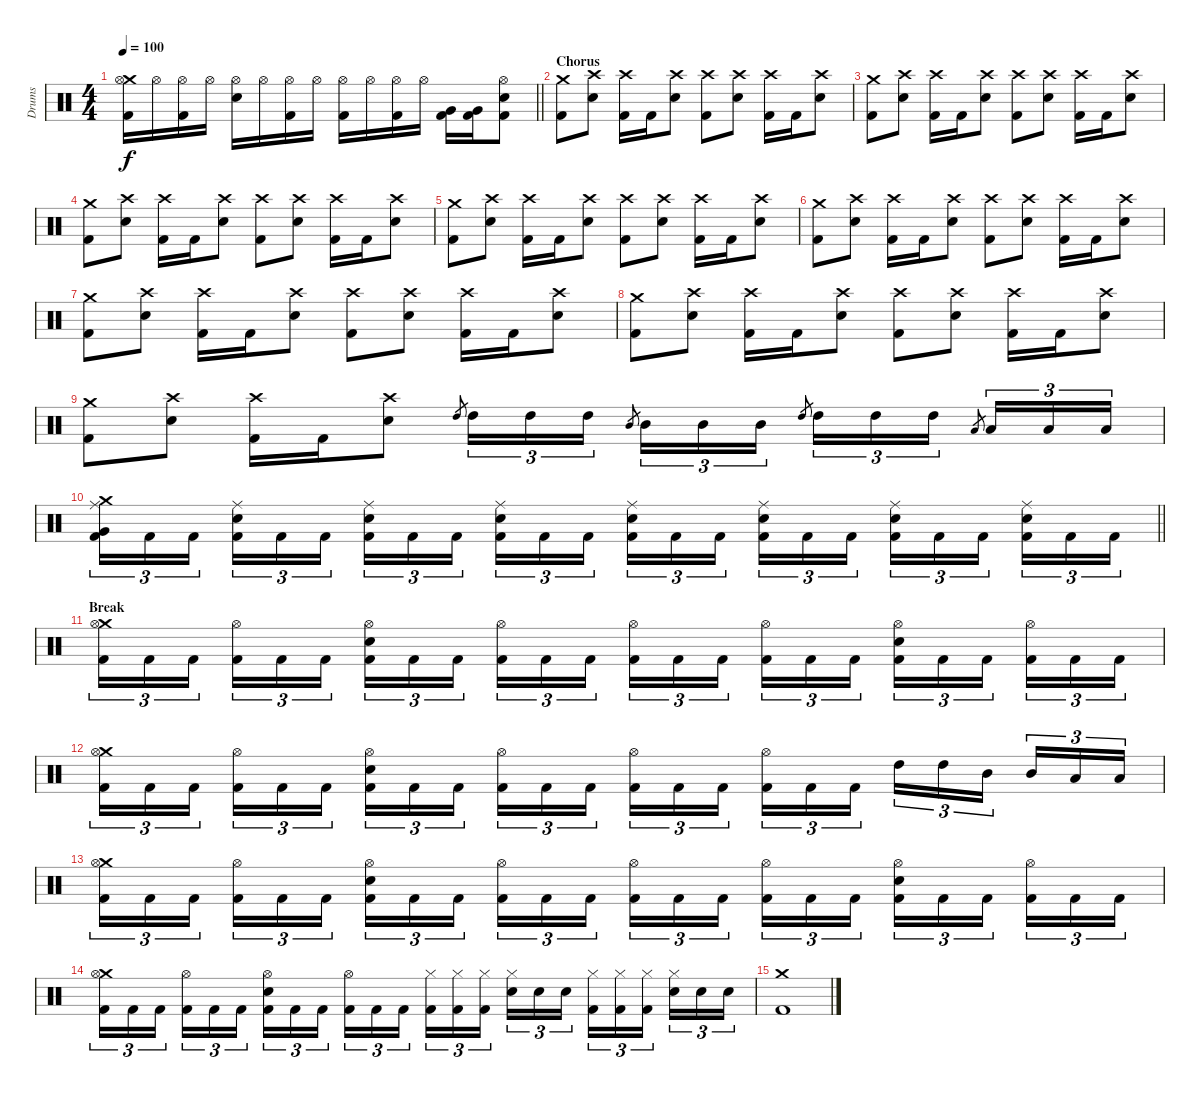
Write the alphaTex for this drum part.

\track ("Drums" "Drums") {instrument percussion}
\staff {score}
\articulation defaults
\ts (4 4)
\tempo 100
\clef neutral
\barLineRight lightlight
\ks c
("Crash medium (hit)" "Hi-Hat (open)" "Kick (hit) 2").16{dy f} "Hi-Hat (open)".16 ("Hi-Hat (open)" "Kick (hit) 2").16 "Hi-Hat (open)".16 ("Hi-Hat (open)" "Electric Snare (hit)").16 "Hi-Hat (open)".16 ("Hi-Hat (open)" "Kick (hit) 2").16 "Hi-Hat (open)".16 ("Hi-Hat (open)" "Kick (hit) 2").16 "Hi-Hat (open)".16 ("Hi-Hat (open)" "Kick (hit) 2").16 "Hi-Hat (open)".16 ("Very Low Tom (hit)" "Kick (hit) 2").16 ("Very Low Tom (hit)" "Kick (hit) 2").16 ("Hi-Hat (open)" "Electric Snare (hit)" "Kick (hit) 2").8 |
\section ("" "Chorus")
("Crash medium (hit)" "Kick (hit) 2").8 ("Crash high (hit)" "Electric Snare (hit)").8 ("Crash high (hit)" "Kick (hit) 2").16 "Kick (hit) 2".16 ("Crash high (hit)" "Electric Snare (hit)").8 ("Crash high (hit)" "Kick (hit) 2").8 ("Crash high (hit)" "Electric Snare (hit)").8 ("Crash high (hit)" "Kick (hit) 2").16 "Kick (hit) 2".16 ("Crash high (hit)" "Electric Snare (hit)").8 |
("Crash medium (hit)" "Kick (hit) 2").8 ("Crash high (hit)" "Electric Snare (hit)").8 ("Crash high (hit)" "Kick (hit) 2").16 "Kick (hit) 2".16 ("Crash high (hit)" "Electric Snare (hit)").8 ("Crash high (hit)" "Kick (hit) 2").8 ("Crash high (hit)" "Electric Snare (hit)").8 ("Crash high (hit)" "Kick (hit) 2").16 "Kick (hit) 2".16 ("Crash high (hit)" "Electric Snare (hit)").8 |
("Crash medium (hit)" "Kick (hit) 2").8 ("Crash high (hit)" "Electric Snare (hit)").8 ("Crash high (hit)" "Kick (hit) 2").16 "Kick (hit) 2".16 ("Crash high (hit)" "Electric Snare (hit)").8 ("Crash high (hit)" "Kick (hit) 2").8 ("Crash high (hit)" "Electric Snare (hit)").8 ("Crash high (hit)" "Kick (hit) 2").16 "Kick (hit) 2".16 ("Crash high (hit)" "Electric Snare (hit)").8 |
("Crash medium (hit)" "Kick (hit) 2").8 ("Crash high (hit)" "Electric Snare (hit)").8 ("Crash high (hit)" "Kick (hit) 2").16 "Kick (hit) 2".16 ("Crash high (hit)" "Electric Snare (hit)").8 ("Crash high (hit)" "Kick (hit) 2").8 ("Crash high (hit)" "Electric Snare (hit)").8 ("Crash high (hit)" "Kick (hit) 2").16 "Kick (hit) 2".16 ("Crash high (hit)" "Electric Snare (hit)").8 |
("Crash medium (hit)" "Kick (hit) 2").8 ("Crash high (hit)" "Electric Snare (hit)").8 ("Crash high (hit)" "Kick (hit) 2").16 "Kick (hit) 2".16 ("Crash high (hit)" "Electric Snare (hit)").8 ("Crash high (hit)" "Kick (hit) 2").8 ("Crash high (hit)" "Electric Snare (hit)").8 ("Crash high (hit)" "Kick (hit) 2").16 "Kick (hit) 2".16 ("Crash high (hit)" "Electric Snare (hit)").8 |
("Crash medium (hit)" "Kick (hit) 2").8 ("Crash high (hit)" "Electric Snare (hit)").8 ("Crash high (hit)" "Kick (hit) 2").16 "Kick (hit) 2".16 ("Crash high (hit)" "Electric Snare (hit)").8 ("Crash high (hit)" "Kick (hit) 2").8 ("Crash high (hit)" "Electric Snare (hit)").8 ("Crash high (hit)" "Kick (hit) 2").16 "Kick (hit) 2".16 ("Crash high (hit)" "Electric Snare (hit)").8 |
("Crash medium (hit)" "Kick (hit) 2").8 ("Crash high (hit)" "Electric Snare (hit)").8 ("Crash high (hit)" "Kick (hit) 2").16 "Kick (hit) 2".16 ("Crash high (hit)" "Electric Snare (hit)").8 ("Crash high (hit)" "Kick (hit) 2").8 ("Crash high (hit)" "Electric Snare (hit)").8 ("Crash high (hit)" "Kick (hit) 2").16 "Kick (hit) 2".16 ("Crash high (hit)" "Electric Snare (hit)").8 |
("Crash medium (hit)" "Kick (hit) 2").8 ("Crash high (hit)" "Electric Snare (hit)").8 ("Crash high (hit)" "Kick (hit) 2").16 "Kick (hit) 2".16 ("Crash high (hit)" "Electric Snare (hit)").8 "High Tom (hit)".8{gr} "High Tom (hit)".16{tu (3 2)} "High Tom (hit)".16{tu (3 2)} "High Tom (hit)".16{tu (3 2)} "Mid Tom (hit)".8{gr beam splitsecondary} "Mid Tom (hit)".16{tu (3 2)} "Mid Tom (hit)".16{tu (3 2)} "Mid Tom (hit)".16{tu (3 2)} "High Tom (hit)".8{gr} "High Tom (hit)".16{tu (3 2)} "High Tom (hit)".16{tu (3 2)} "High Tom (hit)".16{tu (3 2)} "Low Tom (hit)".8{gr beam splitsecondary} "Low Tom (hit)".16{tu (3 2)} "Low Tom (hit)".16{tu (3 2)} "Low Tom (hit)".16{tu (3 2)} |
\barLineRight lightlight
("Crash medium (hit)" "Ride (middle)" "Very Low Tom (hit)" "Kick (hit) 2").16{tu (3 2)} "Kick (hit) 2".16{tu (3 2)} "Kick (hit) 2".16{tu (3 2) beam splitsecondary} ("Ride (middle)" "Electric Snare (hit)" "Kick (hit) 2").16{tu (3 2)} "Kick (hit) 2".16{tu (3 2)} "Kick (hit) 2".16{tu (3 2)} ("Ride (middle)" "Electric Snare (hit)" "Kick (hit) 2").16{tu (3 2)} "Kick (hit) 2".16{tu (3 2)} "Kick (hit) 2".16{tu (3 2) beam splitsecondary} ("Ride (middle)" "Electric Snare (hit)" "Kick (hit) 2").16{tu (3 2)} "Kick (hit) 2".16{tu (3 2)} "Kick (hit) 2".16{tu (3 2)} ("Ride (middle)" "Electric Snare (hit)" "Kick (hit) 2").16{tu (3 2)} "Kick (hit) 2".16{tu (3 2)} "Kick (hit) 2".16{tu (3 2) beam splitsecondary} ("Ride (middle)" "Electric Snare (hit)" "Kick (hit) 2").16{tu (3 2)} "Kick (hit) 2".16{tu (3 2)} "Kick (hit) 2".16{tu (3 2)} ("Ride (middle)" "Electric Snare (hit)" "Kick (hit) 2").16{tu (3 2)} "Kick (hit) 2".16{tu (3 2)} "Kick (hit) 2".16{tu (3 2) beam splitsecondary} ("Ride (middle)" "Electric Snare (hit)" "Kick (hit) 2").16{tu (3 2)} "Kick (hit) 2".16{tu (3 2)} "Kick (hit) 2".16{tu (3 2)} |
\section ("" "Break")
("Crash medium (hit)" "Hi-Hat (open)" "Kick (hit) 2").16{tu (3 2)} "Kick (hit) 2".16{tu (3 2)} "Kick (hit) 2".16{tu (3 2) beam splitsecondary} ("Hi-Hat (open)" "Kick (hit) 2").16{tu (3 2)} "Kick (hit) 2".16{tu (3 2)} "Kick (hit) 2".16{tu (3 2)} ("Hi-Hat (open)" "Electric Snare (hit)" "Kick (hit) 2").16{tu (3 2)} "Kick (hit) 2".16{tu (3 2)} "Kick (hit) 2".16{tu (3 2) beam splitsecondary} ("Hi-Hat (open)" "Kick (hit) 2").16{tu (3 2)} "Kick (hit) 2".16{tu (3 2)} "Kick (hit) 2".16{tu (3 2)} ("Hi-Hat (open)" "Kick (hit) 2").16{tu (3 2)} "Kick (hit) 2".16{tu (3 2)} "Kick (hit) 2".16{tu (3 2) beam splitsecondary} ("Hi-Hat (open)" "Kick (hit) 2").16{tu (3 2)} "Kick (hit) 2".16{tu (3 2)} "Kick (hit) 2".16{tu (3 2)} ("Hi-Hat (open)" "Electric Snare (hit)" "Kick (hit) 2").16{tu (3 2)} "Kick (hit) 2".16{tu (3 2)} "Kick (hit) 2".16{tu (3 2) beam splitsecondary} ("Hi-Hat (open)" "Kick (hit) 2").16{tu (3 2)} "Kick (hit) 2".16{tu (3 2)} "Kick (hit) 2".16{tu (3 2)} |
("Crash medium (hit)" "Hi-Hat (open)" "Kick (hit) 2").16{tu (3 2)} "Kick (hit) 2".16{tu (3 2)} "Kick (hit) 2".16{tu (3 2) beam splitsecondary} ("Hi-Hat (open)" "Kick (hit) 2").16{tu (3 2)} "Kick (hit) 2".16{tu (3 2)} "Kick (hit) 2".16{tu (3 2)} ("Hi-Hat (open)" "Electric Snare (hit)" "Kick (hit) 2").16{tu (3 2)} "Kick (hit) 2".16{tu (3 2)} "Kick (hit) 2".16{tu (3 2) beam splitsecondary} ("Hi-Hat (open)" "Kick (hit) 2").16{tu (3 2)} "Kick (hit) 2".16{tu (3 2)} "Kick (hit) 2".16{tu (3 2)} ("Hi-Hat (open)" "Kick (hit) 2").16{tu (3 2)} "Kick (hit) 2".16{tu (3 2)} "Kick (hit) 2".16{tu (3 2) beam splitsecondary} ("Hi-Hat (open)" "Kick (hit) 2").16{tu (3 2)} "Kick (hit) 2".16{tu (3 2)} "Kick (hit) 2".16{tu (3 2)} "High Tom (hit)".16{tu (3 2)} "High Tom (hit)".16{tu (3 2)} "Mid Tom (hit)".16{tu (3 2) beam splitsecondary} "Mid Tom (hit)".16{tu (3 2)} "Low Tom (hit)".16{tu (3 2)} "Low Tom (hit)".16{tu (3 2)} |
("Crash medium (hit)" "Hi-Hat (open)" "Kick (hit) 2").16{tu (3 2)} "Kick (hit) 2".16{tu (3 2)} "Kick (hit) 2".16{tu (3 2) beam splitsecondary} ("Hi-Hat (open)" "Kick (hit) 2").16{tu (3 2)} "Kick (hit) 2".16{tu (3 2)} "Kick (hit) 2".16{tu (3 2)} ("Hi-Hat (open)" "Electric Snare (hit)" "Kick (hit) 2").16{tu (3 2)} "Kick (hit) 2".16{tu (3 2)} "Kick (hit) 2".16{tu (3 2) beam splitsecondary} ("Hi-Hat (open)" "Kick (hit) 2").16{tu (3 2)} "Kick (hit) 2".16{tu (3 2)} "Kick (hit) 2".16{tu (3 2)} ("Hi-Hat (open)" "Kick (hit) 2").16{tu (3 2)} "Kick (hit) 2".16{tu (3 2)} "Kick (hit) 2".16{tu (3 2) beam splitsecondary} ("Hi-Hat (open)" "Kick (hit) 2").16{tu (3 2)} "Kick (hit) 2".16{tu (3 2)} "Kick (hit) 2".16{tu (3 2)} ("Hi-Hat (open)" "Electric Snare (hit)" "Kick (hit) 2").16{tu (3 2)} "Kick (hit) 2".16{tu (3 2)} "Kick (hit) 2".16{tu (3 2) beam splitsecondary} ("Hi-Hat (open)" "Kick (hit) 2").16{tu (3 2)} "Kick (hit) 2".16{tu (3 2)} "Kick (hit) 2".16{tu (3 2)} |
("Crash medium (hit)" "Hi-Hat (open)" "Kick (hit) 2").16{tu (3 2)} "Kick (hit) 2".16{tu (3 2)} "Kick (hit) 2".16{tu (3 2) beam splitsecondary} ("Hi-Hat (open)" "Kick (hit) 2").16{tu (3 2)} "Kick (hit) 2".16{tu (3 2)} "Kick (hit) 2".16{tu (3 2)} ("Hi-Hat (open)" "Electric Snare (hit)" "Kick (hit) 2").16{tu (3 2)} "Kick (hit) 2".16{tu (3 2)} "Kick (hit) 2".16{tu (3 2) beam splitsecondary} ("Hi-Hat (open)" "Kick (hit) 2").16{tu (3 2)} "Kick (hit) 2".16{tu (3 2)} "Kick (hit) 2".16{tu (3 2)} ("Hi-Hat (closed)" "Kick (hit) 2").16{tu (3 2)} ("Hi-Hat (closed)" "Kick (hit) 2").16{tu (3 2)} ("Hi-Hat (closed)" "Kick (hit) 2").16{tu (3 2) beam splitsecondary} ("Hi-Hat (closed)" "Electric Snare (hit)").16{tu (3 2)} "Electric Snare (hit)".16{tu (3 2)} "Electric Snare (hit)".16{tu (3 2)} ("Hi-Hat (closed)" "Kick (hit) 2").16{tu (3 2)} ("Hi-Hat (closed)" "Kick (hit) 2").16{tu (3 2)} ("Hi-Hat (closed)" "Kick (hit) 2").16{tu (3 2) beam splitsecondary} ("Hi-Hat (closed)" "Electric Snare (hit)").16{tu (3 2)} "Electric Snare (hit)".16{tu (3 2)} "Electric Snare (hit)".16{tu (3 2)} |
("Crash medium (hit)" "Kick (hit) 2").1
